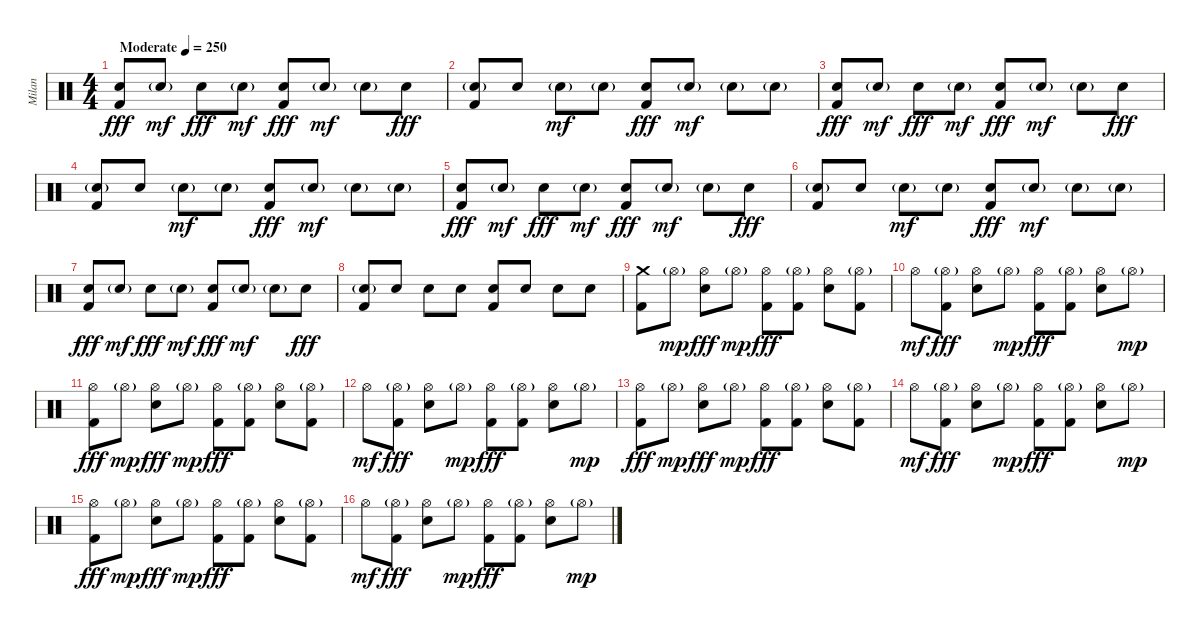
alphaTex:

\track ("Milan" "Milan") {instrument percussion}
\staff {score}
\articulation defaults
\ts (4 4)
\tempo (250 "Moderate")
\clef neutral
\ks c
("Snare (hit) 2" "Kick (hit) 2").8{dy fff} "Snare (hit) 2"{g}.8{dy mf} "Snare (hit) 2".8{dy fff} "Snare (hit) 2"{g}.8{dy mf} ("Snare (hit) 2" "Kick (hit) 2").8{dy fff} "Snare (hit) 2"{g}.8{dy mf} "Snare (hit) 2"{g}.8 "Snare (hit) 2".8{dy fff} |
("Snare (hit) 2"{g} "Kick (hit) 2").8 "Snare (hit) 2".8 "Snare (hit) 2"{g}.8{dy mf} "Snare (hit) 2"{g}.8 ("Snare (hit) 2" "Kick (hit) 2").8{dy fff} "Snare (hit) 2"{g}.8{dy mf} "Snare (hit) 2"{g}.8 "Snare (hit) 2"{g}.8 |
("Snare (hit) 2" "Kick (hit) 2").8{dy fff} "Snare (hit) 2"{g}.8{dy mf} "Snare (hit) 2".8{dy fff} "Snare (hit) 2"{g}.8{dy mf} ("Snare (hit) 2" "Kick (hit) 2").8{dy fff} "Snare (hit) 2"{g}.8{dy mf} "Snare (hit) 2"{g}.8 "Snare (hit) 2".8{dy fff} |
("Snare (hit) 2"{g} "Kick (hit) 2").8 "Snare (hit) 2".8 "Snare (hit) 2"{g}.8{dy mf} "Snare (hit) 2"{g}.8 ("Snare (hit) 2" "Kick (hit) 2").8{dy fff} "Snare (hit) 2"{g}.8{dy mf} "Snare (hit) 2"{g}.8 "Snare (hit) 2"{g}.8 |
("Snare (hit) 2" "Kick (hit) 2").8{dy fff} "Snare (hit) 2"{g}.8{dy mf} "Snare (hit) 2".8{dy fff} "Snare (hit) 2"{g}.8{dy mf} ("Snare (hit) 2" "Kick (hit) 2").8{dy fff} "Snare (hit) 2"{g}.8{dy mf} "Snare (hit) 2"{g}.8 "Snare (hit) 2".8{dy fff} |
("Snare (hit) 2"{g} "Kick (hit) 2").8 "Snare (hit) 2".8 "Snare (hit) 2"{g}.8{dy mf} "Snare (hit) 2"{g}.8 ("Snare (hit) 2" "Kick (hit) 2").8{dy fff} "Snare (hit) 2"{g}.8{dy mf} "Snare (hit) 2"{g}.8 "Snare (hit) 2"{g}.8 |
("Snare (hit) 2" "Kick (hit) 2").8{dy fff} "Snare (hit) 2"{g}.8{dy mf} "Snare (hit) 2".8{dy fff} "Snare (hit) 2"{g}.8{dy mf} ("Snare (hit) 2" "Kick (hit) 2").8{dy fff} "Snare (hit) 2"{g}.8{dy mf} "Snare (hit) 2"{g}.8 "Snare (hit) 2".8{dy fff} |
("Snare (hit) 2"{g} "Kick (hit) 2").8 "Snare (hit) 2".8 "Snare (hit) 2".8 "Snare (hit) 2".8 ("Snare (hit) 2" "Kick (hit) 2").8 "Snare (hit) 2".8 "Snare (hit) 2".8 "Snare (hit) 2".8 |
("Crash medium (hit)" "Kick (hit) 2").8 "Hi-Hat (open)"{g}.8{dy mp} ("Hi-Hat (open)" "Snare (hit) 2").8{dy fff} "Hi-Hat (open)"{g}.8{dy mp} ("Hi-Hat (open)" "Kick (hit) 2").8{dy fff} ("Hi-Hat (open)"{g} "Kick (hit) 2").8 ("Hi-Hat (open)" "Snare (hit) 2").8 ("Hi-Hat (open)"{g} "Kick (hit) 2").8 |
"Hi-Hat (open)".8{dy mf} ("Hi-Hat (open)"{g} "Kick (hit) 2").8{dy fff} ("Hi-Hat (open)" "Snare (hit) 2").8 "Hi-Hat (open)"{g}.8{dy mp} ("Hi-Hat (open)" "Kick (hit) 2").8{dy fff} ("Hi-Hat (open)"{g} "Kick (hit) 2").8 ("Hi-Hat (open)" "Snare (hit) 2").8 "Hi-Hat (open)"{g}.8{dy mp} |
("Hi-Hat (open)" "Kick (hit) 2").8{dy fff} "Hi-Hat (open)"{g}.8{dy mp} ("Hi-Hat (open)" "Snare (hit) 2").8{dy fff} "Hi-Hat (open)"{g}.8{dy mp} ("Hi-Hat (open)" "Kick (hit) 2").8{dy fff} ("Hi-Hat (open)"{g} "Kick (hit) 2").8 ("Hi-Hat (open)" "Snare (hit) 2").8 ("Hi-Hat (open)"{g} "Kick (hit) 2").8 |
"Hi-Hat (open)".8{dy mf} ("Hi-Hat (open)"{g} "Kick (hit) 2").8{dy fff} ("Hi-Hat (open)" "Snare (hit) 2").8 "Hi-Hat (open)"{g}.8{dy mp} ("Hi-Hat (open)" "Kick (hit) 2").8{dy fff} ("Hi-Hat (open)"{g} "Kick (hit) 2").8 ("Hi-Hat (open)" "Snare (hit) 2").8 "Hi-Hat (open)"{g}.8{dy mp} |
("Hi-Hat (open)" "Kick (hit) 2").8{dy fff} "Hi-Hat (open)"{g}.8{dy mp} ("Hi-Hat (open)" "Snare (hit) 2").8{dy fff} "Hi-Hat (open)"{g}.8{dy mp} ("Hi-Hat (open)" "Kick (hit) 2").8{dy fff} ("Hi-Hat (open)"{g} "Kick (hit) 2").8 ("Hi-Hat (open)" "Snare (hit) 2").8 ("Hi-Hat (open)"{g} "Kick (hit) 2").8 |
"Hi-Hat (open)".8{dy mf} ("Hi-Hat (open)"{g} "Kick (hit) 2").8{dy fff} ("Hi-Hat (open)" "Snare (hit) 2").8 "Hi-Hat (open)"{g}.8{dy mp} ("Hi-Hat (open)" "Kick (hit) 2").8{dy fff} ("Hi-Hat (open)"{g} "Kick (hit) 2").8 ("Hi-Hat (open)" "Snare (hit) 2").8 "Hi-Hat (open)"{g}.8{dy mp} |
("Hi-Hat (open)" "Kick (hit) 2").8{dy fff} "Hi-Hat (open)"{g}.8{dy mp} ("Hi-Hat (open)" "Snare (hit) 2").8{dy fff} "Hi-Hat (open)"{g}.8{dy mp} ("Hi-Hat (open)" "Kick (hit) 2").8{dy fff} ("Hi-Hat (open)"{g} "Kick (hit) 2").8 ("Hi-Hat (open)" "Snare (hit) 2").8 ("Hi-Hat (open)"{g} "Kick (hit) 2").8 |
"Hi-Hat (open)".8{dy mf} ("Hi-Hat (open)"{g} "Kick (hit) 2").8{dy fff} ("Hi-Hat (open)" "Snare (hit) 2").8 "Hi-Hat (open)"{g}.8{dy mp} ("Hi-Hat (open)" "Kick (hit) 2").8{dy fff} ("Hi-Hat (open)"{g} "Kick (hit) 2").8 ("Hi-Hat (open)" "Snare (hit) 2").8 "Hi-Hat (open)"{g}.8{dy mp}
